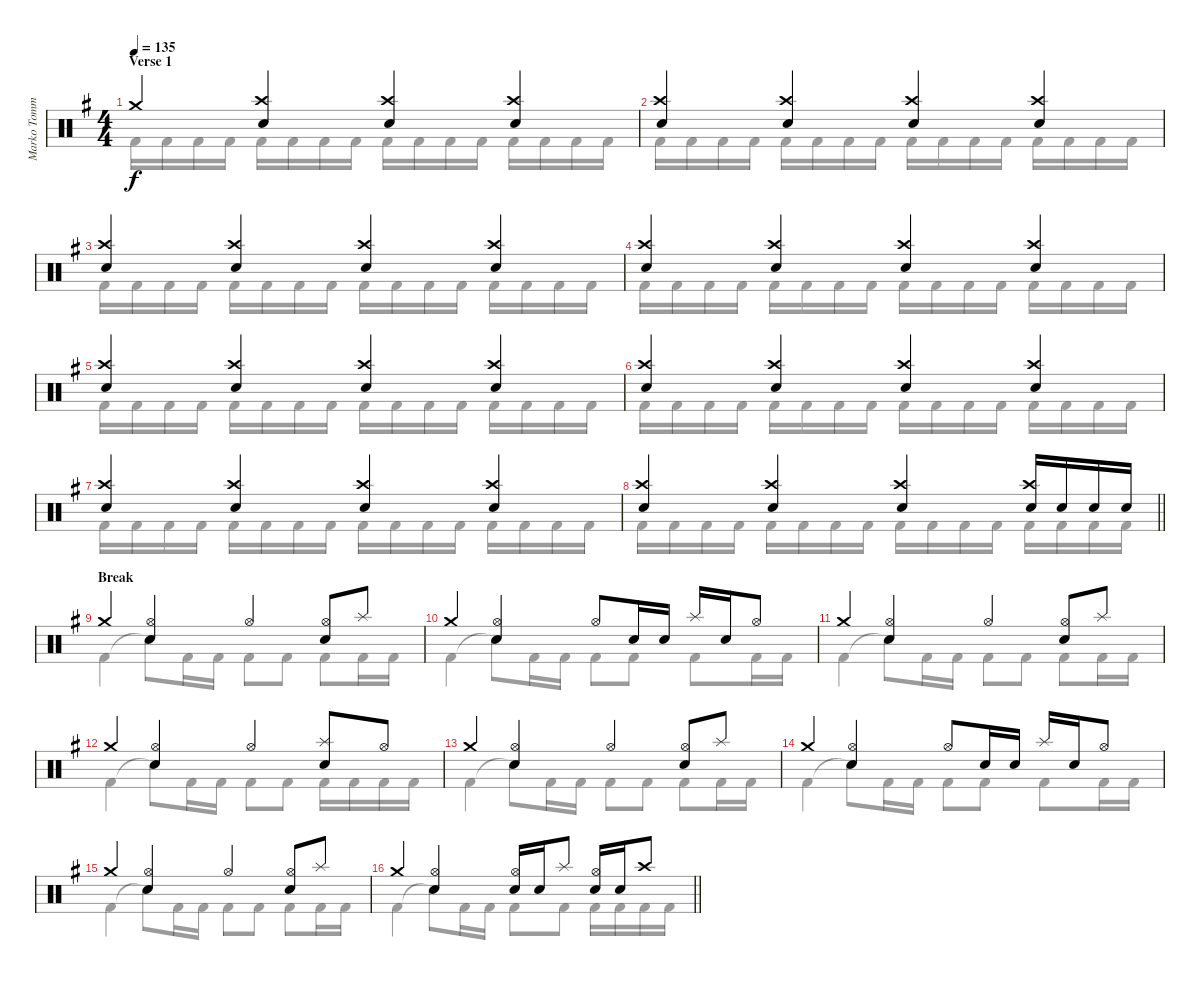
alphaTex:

\track ("Marko Tommila (drums)" "Marko Tomm") {instrument percussion}
\staff {score}
\articulation defaults
\voice
\ts (4 4)
\section ("" "Verse 1")
\tempo 135
\clef neutral
\ks eminor "Crash medium (hit)".4{dy f}
("Crash high (hit)" "Electric Snare (hit)").4 ("Crash high (hit)" "Electric Snare (hit)").4 ("Crash high (hit)" "Electric Snare (hit)").4 |
("Crash high (hit)" "Electric Snare (hit)").4 ("Crash high (hit)" "Electric Snare (hit)").4 ("Crash high (hit)" "Electric Snare (hit)").4 ("Crash high (hit)" "Electric Snare (hit)").4 |
("Crash high (hit)" "Electric Snare (hit)").4 ("Crash high (hit)" "Electric Snare (hit)").4 ("Crash high (hit)" "Electric Snare (hit)").4 ("Crash high (hit)" "Electric Snare (hit)").4 |
("Crash high (hit)" "Electric Snare (hit)").4 ("Crash high (hit)" "Electric Snare (hit)").4 ("Crash high (hit)" "Electric Snare (hit)").4 ("Crash high (hit)" "Electric Snare (hit)").4 |
("Crash high (hit)" "Electric Snare (hit)").4 ("Crash high (hit)" "Electric Snare (hit)").4 ("Crash high (hit)" "Electric Snare (hit)").4 ("Crash high (hit)" "Electric Snare (hit)").4 |
("Crash high (hit)" "Electric Snare (hit)").4 ("Crash high (hit)" "Electric Snare (hit)").4 ("Crash high (hit)" "Electric Snare (hit)").4 ("Crash high (hit)" "Electric Snare (hit)").4 |
("Crash high (hit)" "Electric Snare (hit)").4 ("Crash high (hit)" "Electric Snare (hit)").4 ("Crash high (hit)" "Electric Snare (hit)").4 ("Crash high (hit)" "Electric Snare (hit)").4 |
\barLineRight lightlight
("Crash high (hit)" "Electric Snare (hit)").4 ("Crash high (hit)" "Electric Snare (hit)").4 ("Crash high (hit)" "Electric Snare (hit)").4 ("Crash high (hit)" "Electric Snare (hit)").16 "Electric Snare (hit)".16 "Electric Snare (hit)".16 "Electric Snare (hit)".16 |
\section ("" "Break")
"Crash medium (hit)".4 ("Hi-Hat (open)" "Electric Snare (hit)").4 "Hi-Hat (open)".4 ("Hi-Hat (open)" "Electric Snare (hit)").8 "Splash (hit)".8 |
"Crash medium (hit)".4 ("Hi-Hat (open)" "Electric Snare (hit)").4 "Hi-Hat (open)".8 "Electric Snare (hit)".16 "Electric Snare (hit)".16 "Splash (hit)".16 "Electric Snare (hit)".16 "Hi-Hat (open)".8 |
"Crash medium (hit)".4 ("Hi-Hat (open)" "Electric Snare (hit)").4 "Hi-Hat (open)".4 ("Hi-Hat (open)" "Electric Snare (hit)").8 "Splash (hit)".8 |
"Crash medium (hit)".4 ("Hi-Hat (open)" "Electric Snare (hit)").4 "Hi-Hat (open)".4 ("Splash (hit)" "Electric Snare (hit)").8 "Hi-Hat (open)".8 |
"Crash medium (hit)".4 ("Hi-Hat (open)" "Electric Snare (hit)").4 "Hi-Hat (open)".4 ("Hi-Hat (open)" "Electric Snare (hit)").8 "Splash (hit)".8 |
"Crash medium (hit)".4 ("Hi-Hat (open)" "Electric Snare (hit)").4 "Hi-Hat (open)".8 "Electric Snare (hit)".16 "Electric Snare (hit)".16 "Splash (hit)".16 "Electric Snare (hit)".16 "Hi-Hat (open)".8 |
"Crash medium (hit)".4 ("Hi-Hat (open)" "Electric Snare (hit)").4 "Hi-Hat (open)".4 ("Hi-Hat (open)" "Electric Snare (hit)").8 "Splash (hit)".8 |
\barLineRight lightlight "Crash medium (hit)".4
("Hi-Hat (open)" "Electric Snare (hit)").4 ("Hi-Hat (open)" "Electric Snare (hit)").16 "Electric Snare (hit)".16 "Splash (hit)".8 ("Hi-Hat (open)" "Electric Snare (hit)").16 "Electric Snare (hit)".16 "Crash high (hit)".8
\voice
\clef neutral
\ottava regular
\simile none
\ks eminor "Kick (hit) 2".16{dy f} "Kick (hit) 2".16 "Kick (hit) 2".16 "Kick (hit) 2".16 "Kick (hit) 2".16 "Kick (hit) 2".16 "Kick (hit) 2".16 "Kick (hit) 2".16 "Kick (hit) 2".16 "Kick (hit) 2".16 "Kick (hit) 2".16 "Kick (hit) 2".16 "Kick (hit) 2".16 "Kick (hit) 2".16 "Kick (hit) 2".16 "Kick (hit) 2".16
|
"Kick (hit) 2".16 "Kick (hit) 2".16 "Kick (hit) 2".16 "Kick (hit) 2".16 "Kick (hit) 2".16 "Kick (hit) 2".16 "Kick (hit) 2".16 "Kick (hit) 2".16 "Kick (hit) 2".16 "Kick (hit) 2".16 "Kick (hit) 2".16 "Kick (hit) 2".16 "Kick (hit) 2".16 "Kick (hit) 2".16 "Kick (hit) 2".16 "Kick (hit) 2".16 |
"Kick (hit) 2".16 "Kick (hit) 2".16 "Kick (hit) 2".16 "Kick (hit) 2".16 "Kick (hit) 2".16 "Kick (hit) 2".16 "Kick (hit) 2".16 "Kick (hit) 2".16 "Kick (hit) 2".16 "Kick (hit) 2".16 "Kick (hit) 2".16 "Kick (hit) 2".16 "Kick (hit) 2".16 "Kick (hit) 2".16 "Kick (hit) 2".16 "Kick (hit) 2".16 |
"Kick (hit) 2".16 "Kick (hit) 2".16 "Kick (hit) 2".16 "Kick (hit) 2".16 "Kick (hit) 2".16 "Kick (hit) 2".16 "Kick (hit) 2".16 "Kick (hit) 2".16 "Kick (hit) 2".16 "Kick (hit) 2".16 "Kick (hit) 2".16 "Kick (hit) 2".16 "Kick (hit) 2".16 "Kick (hit) 2".16 "Kick (hit) 2".16 "Kick (hit) 2".16 |
"Kick (hit) 2".16 "Kick (hit) 2".16 "Kick (hit) 2".16 "Kick (hit) 2".16 "Kick (hit) 2".16 "Kick (hit) 2".16 "Kick (hit) 2".16 "Kick (hit) 2".16 "Kick (hit) 2".16 "Kick (hit) 2".16 "Kick (hit) 2".16 "Kick (hit) 2".16 "Kick (hit) 2".16 "Kick (hit) 2".16 "Kick (hit) 2".16 "Kick (hit) 2".16 |
"Kick (hit) 2".16 "Kick (hit) 2".16 "Kick (hit) 2".16 "Kick (hit) 2".16 "Kick (hit) 2".16 "Kick (hit) 2".16 "Kick (hit) 2".16 "Kick (hit) 2".16 "Kick (hit) 2".16 "Kick (hit) 2".16 "Kick (hit) 2".16 "Kick (hit) 2".16 "Kick (hit) 2".16 "Kick (hit) 2".16 "Kick (hit) 2".16 "Kick (hit) 2".16 |
"Kick (hit) 2".16 "Kick (hit) 2".16 "Kick (hit) 2".16 "Kick (hit) 2".16 "Kick (hit) 2".16 "Kick (hit) 2".16 "Kick (hit) 2".16 "Kick (hit) 2".16 "Kick (hit) 2".16 "Kick (hit) 2".16 "Kick (hit) 2".16 "Kick (hit) 2".16 "Kick (hit) 2".16 "Kick (hit) 2".16 "Kick (hit) 2".16 "Kick (hit) 2".16 |
\barLineRight lightlight "Kick (hit) 2".16 "Kick (hit) 2".16 "Kick (hit) 2".16 "Kick (hit) 2".16 "Kick (hit) 2".16 "Kick (hit) 2".16 "Kick (hit) 2".16 "Kick (hit) 2".16 "Kick (hit) 2".16 "Kick (hit) 2".16 "Kick (hit) 2".16 "Kick (hit) 2".16 "Kick (hit) 2".16 "Kick (hit) 2".16 "Kick (hit) 2".16 "Kick (hit) 2".16
|
"Kick (hit) 2".4 "Snare (hit)"{t}.8 "Kick (hit) 2".16 "Kick (hit) 2".16 "Kick (hit) 2".8 "Kick (hit) 2".8 "Kick (hit) 2".8 "Kick (hit) 2".16 "Kick (hit) 2".16 |
"Kick (hit) 2".4 "Snare (hit)"{t}.8 "Kick (hit) 2".16 "Kick (hit) 2".16 "Kick (hit) 2".8 "Kick (hit) 2".8 "Kick (hit) 2".8 "Kick (hit) 2".16 "Kick (hit) 2".16 |
"Kick (hit) 2".4 "Snare (hit)"{t}.8 "Kick (hit) 2".16 "Kick (hit) 2".16 "Kick (hit) 2".8 "Kick (hit) 2".8 "Kick (hit) 2".8 "Kick (hit) 2".16 "Kick (hit) 2".16 |
"Kick (hit) 2".4 "Snare (hit)"{t}.8 "Kick (hit) 2".16 "Kick (hit) 2".16 "Kick (hit) 2".8 "Kick (hit) 2".8 "Kick (hit) 2".16 "Kick (hit) 2".16 "Kick (hit) 2".16 "Kick (hit) 2".16 |
"Kick (hit) 2".4 "Snare (hit)"{t}.8 "Kick (hit) 2".16 "Kick (hit) 2".16 "Kick (hit) 2".8 "Kick (hit) 2".8 "Kick (hit) 2".8 "Kick (hit) 2".16 "Kick (hit) 2".16 |
"Kick (hit) 2".4 "Snare (hit)"{t}.8 "Kick (hit) 2".16 "Kick (hit) 2".16 "Kick (hit) 2".8 "Kick (hit) 2".8 "Kick (hit) 2".8 "Kick (hit) 2".16 "Kick (hit) 2".16 |
"Kick (hit) 2".4 "Snare (hit)"{t}.8 "Kick (hit) 2".16 "Kick (hit) 2".16 "Kick (hit) 2".8 "Kick (hit) 2".8 "Kick (hit) 2".8 "Kick (hit) 2".16 "Kick (hit) 2".16 |
\barLineRight lightlight "Kick (hit) 2".4 "Snare (hit)"{t}.8 "Kick (hit) 2".16 "Kick (hit) 2".16 "Kick (hit) 2".8 "Kick (hit) 2".8 "Kick (hit) 2".16 "Kick (hit) 2".16 "Kick (hit) 2".16 "Kick (hit) 2".16
